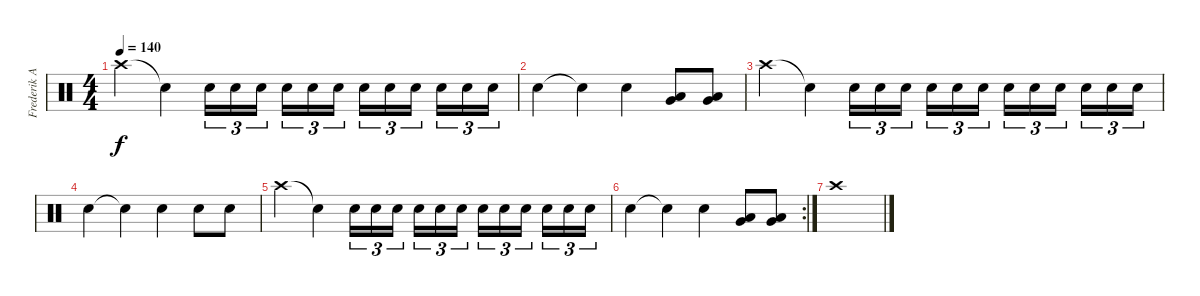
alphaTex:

\track ("Frederik Anderson" "Frederik A") {instrument percussion}
\staff {score}
\articulation defaults
\ts (4 4)
\tempo 140
\clef neutral
\ks c "Crash high (hit)".4{dy f} "Snare (hit)"{t}.4 "Electric Snare (hit)".16{tu (3 2)} "Electric Snare (hit)".16{tu (3 2)} "Electric Snare (hit)".16{tu (3 2)} "Electric Snare (hit)".16{tu (3 2)} "Electric Snare (hit)".16{tu (3 2)} "Electric Snare (hit)".16{tu (3 2)} "Electric Snare (hit)".16{tu (3 2)} "Electric Snare (hit)".16{tu (3 2)} "Electric Snare (hit)".16{tu (3 2)} "Electric Snare (hit)".16{tu (3 2)} "Electric Snare (hit)".16{tu (3 2)} "Electric Snare (hit)".16{tu (3 2)}
|
"Electric Snare (hit)".4 "Electric Snare (hit)"{t}.4 "Electric Snare (hit)".4 ("Low Tom (hit)" "Very Low Tom (hit)").8 ("Very Low Tom (hit)" "Low Floor Tom (hit)").8 |
"Crash high (hit)".4 "Snare (hit)"{t}.4 "Electric Snare (hit)".16{tu (3 2)} "Electric Snare (hit)".16{tu (3 2)} "Electric Snare (hit)".16{tu (3 2)} "Electric Snare (hit)".16{tu (3 2)} "Electric Snare (hit)".16{tu (3 2)} "Electric Snare (hit)".16{tu (3 2)} "Electric Snare (hit)".16{tu (3 2)} "Electric Snare (hit)".16{tu (3 2)} "Electric Snare (hit)".16{tu (3 2)} "Electric Snare (hit)".16{tu (3 2)} "Electric Snare (hit)".16{tu (3 2)} "Electric Snare (hit)".16{tu (3 2)} |
"Electric Snare (hit)".4 "Electric Snare (hit)"{t}.4 "Electric Snare (hit)".4 "Electric Snare (hit)".8 "Electric Snare (hit)".8 |
"Crash high (hit)".4 "Snare (hit)"{t}.4 "Electric Snare (hit)".16{tu (3 2)} "Electric Snare (hit)".16{tu (3 2)} "Electric Snare (hit)".16{tu (3 2)} "Electric Snare (hit)".16{tu (3 2)} "Electric Snare (hit)".16{tu (3 2)} "Electric Snare (hit)".16{tu (3 2)} "Electric Snare (hit)".16{tu (3 2)} "Electric Snare (hit)".16{tu (3 2)} "Electric Snare (hit)".16{tu (3 2)} "Electric Snare (hit)".16{tu (3 2)} "Electric Snare (hit)".16{tu (3 2)} "Electric Snare (hit)".16{tu (3 2)} |
\rc 2 "Electric Snare (hit)".4 "Electric Snare (hit)"{t}.4 "Electric Snare (hit)".4
("Low Tom (hit)" "Very Low Tom (hit)").8 ("Very Low Tom (hit)" "Low Floor Tom (hit)").8 |
"Crash high (hit)".1
